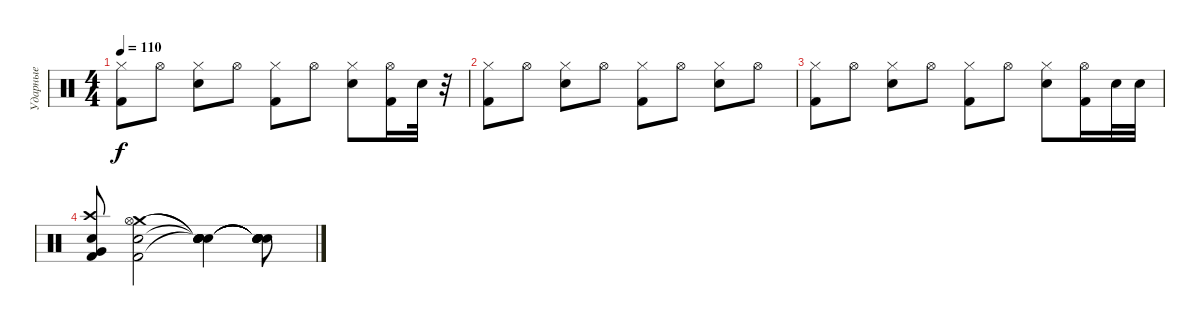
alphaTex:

\track ("Ударные" "Ударные") {instrument percussion}
\staff {score}
\articulation defaults
\ts (4 4)
\tempo 110
\clef neutral
\ks c
("Hi-Hat (closed)" "Kick (hit) 2").8{dy f} "Hi-Hat (open)".8 ("Hi-Hat (closed)" "Electric Snare (hit)").8 "Hi-Hat (open)".8 ("Hi-Hat (closed)" "Kick (hit) 2").8 "Hi-Hat (open)".8 ("Hi-Hat (closed)" "Electric Snare (hit)").8 ("Hi-Hat (open)" "Kick (hit) 2").16 "Electric Snare (hit)".32 r.32 |
("Hi-Hat (closed)" "Kick (hit) 2").8 "Hi-Hat (open)".8 ("Hi-Hat (closed)" "Electric Snare (hit)").8 "Hi-Hat (open)".8 ("Hi-Hat (closed)" "Kick (hit) 2").8 "Hi-Hat (open)".8 ("Hi-Hat (closed)" "Electric Snare (hit)").8 "Hi-Hat (open)".8 |
("Hi-Hat (closed)" "Kick (hit) 2").8 "Hi-Hat (open)".8 ("Hi-Hat (closed)" "Electric Snare (hit)").8 "Hi-Hat (open)".8 ("Hi-Hat (closed)" "Kick (hit) 2").8 "Hi-Hat (open)".8 ("Hi-Hat (closed)" "Electric Snare (hit)").8 ("Hi-Hat (open)" "Kick (hit) 2").16 "Electric Snare (hit)".32 "Electric Snare (hit)".32 |
("Crash high (hit)" "Electric Snare (hit)" "Very Low Tom (hit)" "Kick (hit) 2").8 ("Crash medium (hit)" "Electric Snare (hit)" "Kick (hit) 2" "Hi-Hat (open)").2 ("Snare (hit)"{t} "Snare (hit)"{t} "Snare (hit)"{t} "Snare (hit)"{t} "Snare (hit)" "Snare (hit)").4 ("Snare (hit)"{t} "Snare (hit)"{t} "Snare (hit)"{t} "Snare (hit)"{t} "Snare (hit)"{t} "Snare (hit)"{t}).8
